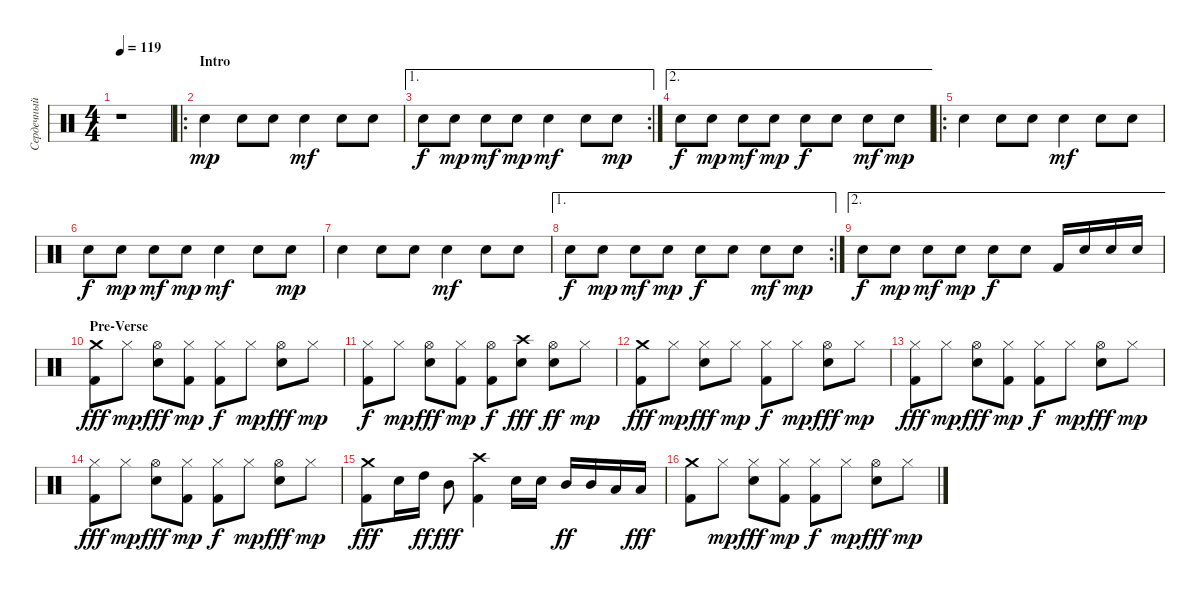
\track ("Сердечный (Ударные)" "Сердечный ") {instrument percussion}
\staff {score}
\articulation defaults
\ts (4 4)
\tempo 119
\clef neutral
\ks c
r.1{dy mp} |
\ro
\section ("" "Intro")
"Electric Snare (hit)"{tr (40 64)}.4 "Electric Snare (hit)".8 "Electric Snare (hit)".8 "Electric Snare (hit)"{tr (40 64)}.4{dy mf} "Electric Snare (hit)".8 "Electric Snare (hit)".8 |
\ae 1
\rc 2 "Electric Snare (hit)".8{dy f} "Electric Snare (hit)"{tr (40 64)}.8{dy mp} "Electric Snare (hit)".8{dy mf} "Electric Snare (hit)"{tr (40 64)}.8{dy mp} "Electric Snare (hit)"{tr (40 16)}.4{dy mf} "Electric Snare (hit)".8 "Electric Snare (hit)".8{dy mp}
|
\ae 2 "Electric Snare (hit)".8{dy f} "Electric Snare (hit)"{tr (40 64)}.8{dy mp} "Electric Snare (hit)".8{dy mf} "Electric Snare (hit)"{tr (40 64)}.8{dy mp} "Electric Snare (hit)".8{dy f} "Electric Snare (hit)"{tr (40 16)}.8 "Electric Snare (hit)".8{dy mf} "Electric Snare (hit)".8{dy mp}
|
\ro "Electric Snare (hit)"{tr (40 64)}.4 "Electric Snare (hit)".8 "Electric Snare (hit)".8 "Electric Snare (hit)"{tr (40 64)}.4{dy mf} "Electric Snare (hit)".8 "Electric Snare (hit)".8
|
"Electric Snare (hit)".8{dy f} "Electric Snare (hit)"{tr (40 64)}.8{dy mp} "Electric Snare (hit)".8{dy mf} "Electric Snare (hit)"{tr (40 64)}.8{dy mp} "Electric Snare (hit)"{tr (40 16)}.4{dy mf} "Electric Snare (hit)".8 "Electric Snare (hit)".8{dy mp} |
"Electric Snare (hit)"{tr (40 64)}.4 "Electric Snare (hit)".8 "Electric Snare (hit)".8 "Electric Snare (hit)"{tr (40 64)}.4{dy mf} "Electric Snare (hit)".8 "Electric Snare (hit)".8 |
\ae 1
\rc 2 "Electric Snare (hit)".8{dy f} "Electric Snare (hit)"{tr (40 64)}.8{dy mp} "Electric Snare (hit)".8{dy mf} "Electric Snare (hit)"{tr (40 64)}.8{dy mp} "Electric Snare (hit)".8{dy f} "Electric Snare (hit)"{tr (40 16)}.8 "Electric Snare (hit)".8{dy mf} "Electric Snare (hit)".8{dy mp}
|
\ae 2 "Electric Snare (hit)".8{dy f} "Electric Snare (hit)"{tr (40 64)}.8{dy mp} "Electric Snare (hit)".8{dy mf} "Electric Snare (hit)"{tr (40 64)}.8{dy mp} "Electric Snare (hit)".8{dy f} "Electric Snare (hit)"{tr (40 16)}.8 "Kick (hit) 2".16 "Electric Snare (hit)".16 "Electric Snare (hit)".16 "Electric Snare (hit)".16
|
\section ("" "Pre-Verse")
("Kick (hit) 2" "Crash medium (hit)").8{dy fff} "Hi-Hat (closed)".8{dy mp} ("Hi-Hat (open)" "Electric Snare (hit)").8{dy fff} ("Hi-Hat (closed)" "Kick (hit) 2").8{dy mp} ("Hi-Hat (closed)" "Kick (hit) 2").8{dy f} "Hi-Hat (closed)".8{dy mp} ("Hi-Hat (open)" "Electric Snare (hit)").8{dy fff} "Hi-Hat (closed)".8{dy mp} |
("Hi-Hat (closed)" "Kick (hit) 2").8{dy f} "Hi-Hat (closed)".8{dy mp} ("Hi-Hat (open)" "Electric Snare (hit)").8{dy fff} ("Hi-Hat (closed)" "Kick (hit) 2").8{dy mp} ("Hi-Hat (open)" "Kick (hit) 2").8{dy f} ("Electric Snare (hit)" "Crash high (hit)").8{dy fff} ("Hi-Hat (open)" "Electric Snare (hit)").8{dy ff} "Hi-Hat (closed)".8{dy mp} |
("Kick (hit) 2" "Crash medium (hit)").8{dy fff} "Hi-Hat (closed)".8{dy mp} ("Hi-Hat (closed)" "Electric Snare (hit)").8{dy fff} "Hi-Hat (closed)".8{dy mp} ("Hi-Hat (closed)" "Kick (hit) 2").8{dy f} "Hi-Hat (closed)".8{dy mp} ("Hi-Hat (open)" "Electric Snare (hit)").8{dy fff} "Hi-Hat (closed)".8{dy mp} |
("Kick (hit) 2" "Hi-Hat (closed)").8{dy fff} "Hi-Hat (closed)".8{dy mp} ("Hi-Hat (open)" "Electric Snare (hit)").8{dy fff} ("Hi-Hat (closed)" "Kick (hit) 2").8{dy mp} ("Hi-Hat (closed)" "Kick (hit) 2").8{dy f} "Hi-Hat (closed)".8{dy mp} ("Hi-Hat (open)" "Electric Snare (hit)").8{dy fff} "Hi-Hat (closed)".8{dy mp} |
("Kick (hit) 2" "Hi-Hat (closed)").8{dy fff} "Hi-Hat (closed)".8{dy mp} ("Hi-Hat (open)" "Electric Snare (hit)").8{dy fff} ("Hi-Hat (closed)" "Kick (hit) 2").8{dy mp} ("Hi-Hat (closed)" "Kick (hit) 2").8{dy f} "Hi-Hat (closed)".8{dy mp} ("Hi-Hat (open)" "Electric Snare (hit)").8{dy fff} "Hi-Hat (closed)".8{dy mp} |
("Kick (hit) 2" "Crash medium (hit)").8{dy fff} "Electric Snare (hit)".16 "High Tom (hit)".16{dy ff} "Mid Tom (hit)".8{dy fff} ("Kick (hit) 2" "Crash high (hit)").4 "Electric Snare (hit)".16 "Electric Snare (hit)".16 "Mid Tom (hit)".16{dy ff} "Mid Tom (hit)".16 "Low Tom (hit)".16 "Low Tom (hit)".16{dy fff} |
("Kick (hit) 2" "Crash medium (hit)").8 "Hi-Hat (closed)".8{dy mp} ("Hi-Hat (closed)" "Electric Snare (hit)").8{dy fff} ("Hi-Hat (closed)" "Kick (hit) 2").8{dy mp} ("Hi-Hat (closed)" "Kick (hit) 2").8{dy f} "Hi-Hat (closed)".8{dy mp} ("Hi-Hat (open)" "Electric Snare (hit)").8{dy fff} "Hi-Hat (closed)".8{dy mp}
